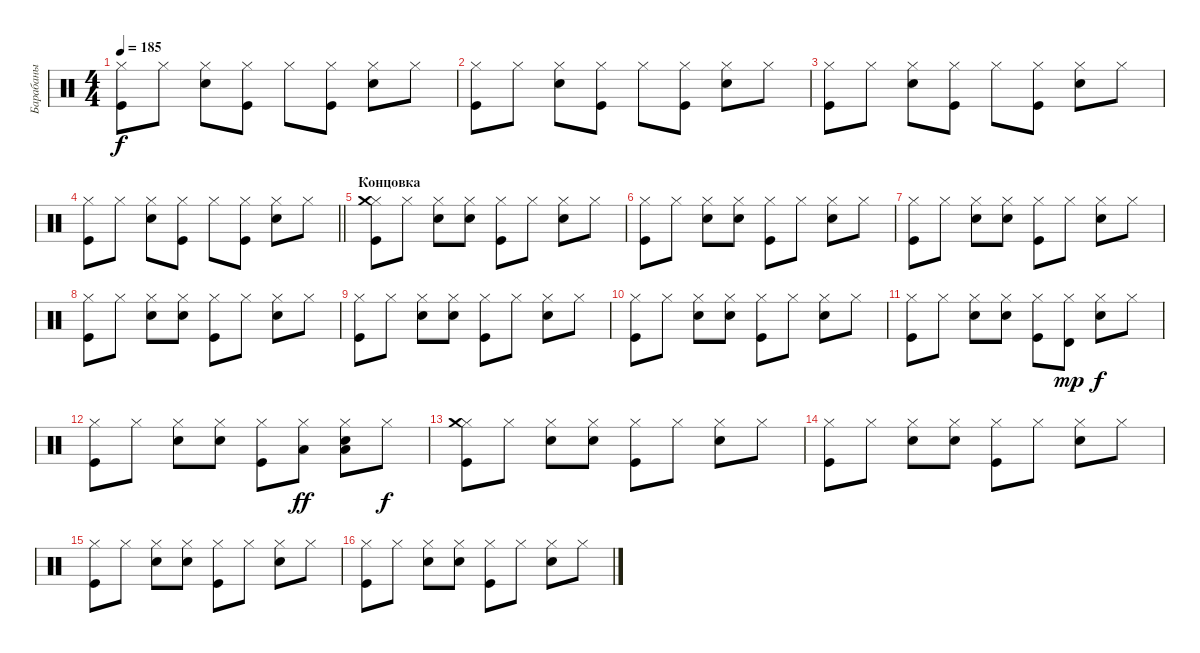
\track ("Барабаны" "Барабаны") {instrument percussion}
\staff {score}
\articulation defaults
\ts (4 4)
\tempo 185
\clef neutral
\ks c
("Kick (hit)" "Hi-Hat (closed)").8{dy f} "Hi-Hat (closed)".8 ("Snare (hit) 2" "Hi-Hat (closed)").8 ("Kick (hit)" "Hi-Hat (closed)").8 "Hi-Hat (closed)".8 ("Kick (hit)" "Hi-Hat (closed)").8 ("Snare (hit) 2" "Hi-Hat (closed)").8 "Hi-Hat (closed)".8 |
("Kick (hit)" "Hi-Hat (closed)").8 "Hi-Hat (closed)".8 ("Snare (hit) 2" "Hi-Hat (closed)").8 ("Kick (hit)" "Hi-Hat (closed)").8 "Hi-Hat (closed)".8 ("Kick (hit)" "Hi-Hat (closed)").8 ("Snare (hit) 2" "Hi-Hat (closed)").8 "Hi-Hat (closed)".8 |
("Kick (hit)" "Hi-Hat (closed)").8 "Hi-Hat (closed)".8 ("Snare (hit) 2" "Hi-Hat (closed)").8 ("Kick (hit)" "Hi-Hat (closed)").8 "Hi-Hat (closed)".8 ("Kick (hit)" "Hi-Hat (closed)").8 ("Snare (hit) 2" "Hi-Hat (closed)").8 "Hi-Hat (closed)".8 |
\barLineRight lightlight
("Kick (hit)" "Hi-Hat (closed)").8 "Hi-Hat (closed)".8 ("Snare (hit) 2" "Hi-Hat (closed)").8 ("Kick (hit)" "Hi-Hat (closed)").8 "Hi-Hat (closed)".8 ("Kick (hit)" "Hi-Hat (closed)").8 ("Snare (hit) 2" "Hi-Hat (closed)").8 "Hi-Hat (closed)".8 |
\section ("" "Концовка")
("Kick (hit)" "Hi-Hat (closed)" "Crash medium (hit)").8 "Hi-Hat (closed)".8 ("Snare (hit) 2" "Hi-Hat (closed)").8 ("Snare (hit) 2" "Hi-Hat (closed)").8 ("Kick (hit)" "Hi-Hat (closed)").8 "Hi-Hat (closed)".8 ("Snare (hit) 2" "Hi-Hat (closed)").8 "Hi-Hat (closed)".8 |
("Kick (hit)" "Hi-Hat (closed)").8 "Hi-Hat (closed)".8 ("Snare (hit) 2" "Hi-Hat (closed)").8 ("Snare (hit) 2" "Hi-Hat (closed)").8 ("Kick (hit)" "Hi-Hat (closed)").8 "Hi-Hat (closed)".8 ("Snare (hit) 2" "Hi-Hat (closed)").8 "Hi-Hat (closed)".8 |
("Kick (hit)" "Hi-Hat (closed)").8 "Hi-Hat (closed)".8 ("Snare (hit) 2" "Hi-Hat (closed)").8 ("Snare (hit) 2" "Hi-Hat (closed)").8 ("Kick (hit)" "Hi-Hat (closed)").8 "Hi-Hat (closed)".8 ("Snare (hit) 2" "Hi-Hat (closed)").8 "Hi-Hat (closed)".8 |
("Kick (hit)" "Hi-Hat (closed)").8 "Hi-Hat (closed)".8 ("Snare (hit) 2" "Hi-Hat (closed)").8 ("Snare (hit) 2" "Hi-Hat (closed)").8 ("Kick (hit)" "Hi-Hat (closed)").8 "Hi-Hat (closed)".8 ("Snare (hit) 2" "Hi-Hat (closed)").8 "Hi-Hat (closed)".8 |
("Kick (hit)" "Hi-Hat (closed)").8 "Hi-Hat (closed)".8 ("Snare (hit) 2" "Hi-Hat (closed)").8 ("Snare (hit) 2" "Hi-Hat (closed)").8 ("Kick (hit)" "Hi-Hat (closed)").8 "Hi-Hat (closed)".8 ("Snare (hit) 2" "Hi-Hat (closed)").8 "Hi-Hat (closed)".8 |
("Kick (hit)" "Hi-Hat (closed)").8 "Hi-Hat (closed)".8 ("Snare (hit) 2" "Hi-Hat (closed)").8 ("Snare (hit) 2" "Hi-Hat (closed)").8 ("Kick (hit)" "Hi-Hat (closed)").8 "Hi-Hat (closed)".8 ("Snare (hit) 2" "Hi-Hat (closed)").8 "Hi-Hat (closed)".8 |
("Kick (hit)" "Hi-Hat (closed)").8 "Hi-Hat (closed)".8 ("Snare (hit) 2" "Hi-Hat (closed)").8 ("Snare (hit) 2" "Hi-Hat (closed)").8 ("Kick (hit)" "Hi-Hat (closed)").8 ("Hi-Hat (closed)" "Timbale high (hit)").8{dy mp} ("Snare (hit) 2" "Hi-Hat (closed)").8{dy f} "Hi-Hat (closed)".8 |
("Kick (hit)" "Hi-Hat (closed)").8 "Hi-Hat (closed)".8 ("Snare (hit) 2" "Hi-Hat (closed)").8 ("Snare (hit) 2" "Hi-Hat (closed)").8 ("Kick (hit)" "Hi-Hat (closed)").8 ("Hi-Hat (closed)" "Low Floor Tom (hit)").8{dy ff} ("Snare (hit) 2" "Hi-Hat (closed)" "Low Floor Tom (hit)").8 "Hi-Hat (closed)".8{dy f} |
("Kick (hit)" "Hi-Hat (closed)" "Crash medium (hit)").8 "Hi-Hat (closed)".8 ("Snare (hit) 2" "Hi-Hat (closed)").8 ("Snare (hit) 2" "Hi-Hat (closed)").8 ("Kick (hit)" "Hi-Hat (closed)").8 "Hi-Hat (closed)".8 ("Snare (hit) 2" "Hi-Hat (closed)").8 "Hi-Hat (closed)".8 |
("Kick (hit)" "Hi-Hat (closed)").8 "Hi-Hat (closed)".8 ("Snare (hit) 2" "Hi-Hat (closed)").8 ("Snare (hit) 2" "Hi-Hat (closed)").8 ("Kick (hit)" "Hi-Hat (closed)").8 "Hi-Hat (closed)".8 ("Snare (hit) 2" "Hi-Hat (closed)").8 "Hi-Hat (closed)".8 |
("Kick (hit)" "Hi-Hat (closed)").8 "Hi-Hat (closed)".8 ("Snare (hit) 2" "Hi-Hat (closed)").8 ("Snare (hit) 2" "Hi-Hat (closed)").8 ("Kick (hit)" "Hi-Hat (closed)").8 "Hi-Hat (closed)".8 ("Snare (hit) 2" "Hi-Hat (closed)").8 "Hi-Hat (closed)".8 |
("Kick (hit)" "Hi-Hat (closed)").8 "Hi-Hat (closed)".8 ("Snare (hit) 2" "Hi-Hat (closed)").8 ("Snare (hit) 2" "Hi-Hat (closed)").8 ("Kick (hit)" "Hi-Hat (closed)").8 "Hi-Hat (closed)".8 ("Snare (hit) 2" "Hi-Hat (closed)").8 "Hi-Hat (closed)".8
